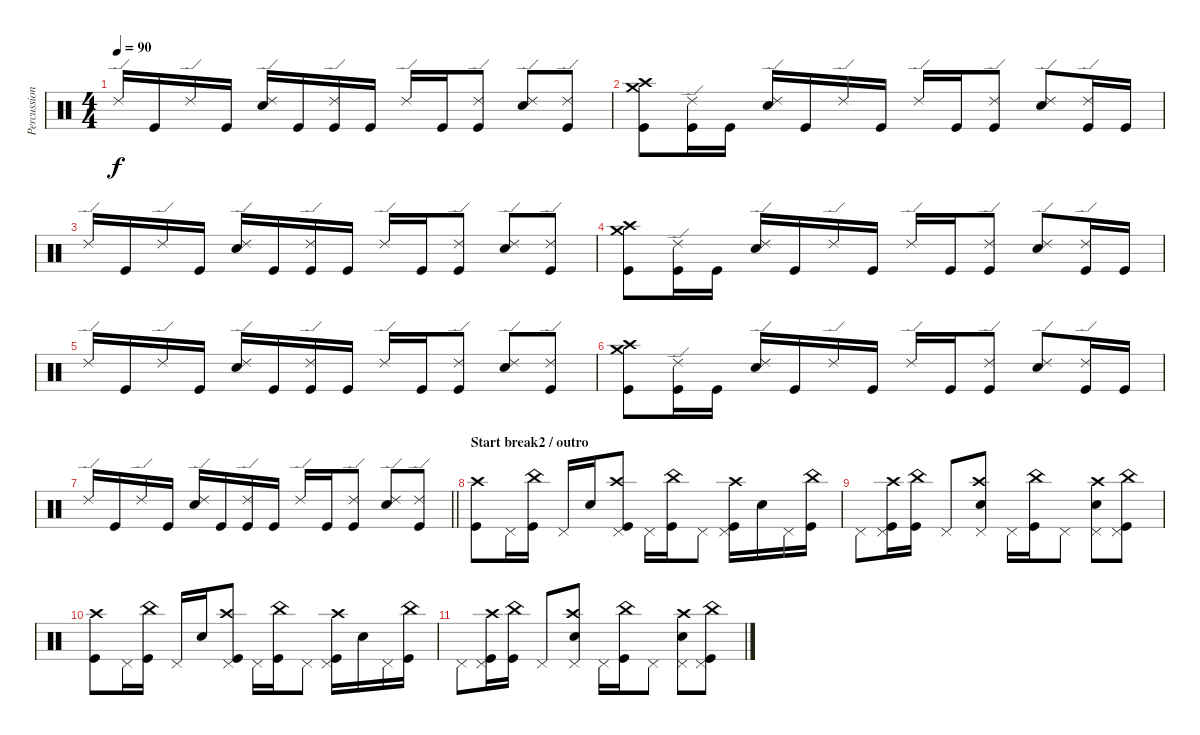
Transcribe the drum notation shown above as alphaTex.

\track ("Percussion" "Percussion") {instrument percussion}
\staff {score}
\articulation defaults
\ts (4 4)
\tempo 90
\clef neutral
\ks c "Ride (edge) 2".16{dy f} "Kick (hit)".16 "Ride (edge) 2".16 "Kick (hit)".16
("Snare (hit) 2" "Ride (edge) 2").16 "Kick (hit)".16 ("Kick (hit)" "Ride (edge) 2").16 "Kick (hit)".16 "Ride (edge) 2".16 "Kick (hit)".16 ("Kick (hit)" "Ride (edge) 2").8 ("Snare (hit) 2" "Ride (edge) 2").8 ("Kick (hit)" "Ride (edge) 2").8 |
("Kick (hit)" "Crash high (hit)" "Crash medium (hit)").8 ("Kick (hit)" "Ride (edge) 2").16 "Kick (hit)".16 ("Snare (hit) 2" "Ride (edge) 2").16 "Kick (hit)".16 "Ride (edge) 2".16 "Kick (hit)".16 "Ride (edge) 2".16 "Kick (hit)".16 ("Kick (hit)" "Ride (edge) 2").8 ("Snare (hit) 2" "Ride (edge) 2").8 ("Kick (hit)" "Ride (edge) 2").16 "Kick (hit)".16 |
"Ride (edge) 2".16 "Kick (hit)".16 "Ride (edge) 2".16 "Kick (hit)".16 ("Snare (hit) 2" "Ride (edge) 2").16 "Kick (hit)".16 ("Kick (hit)" "Ride (edge) 2").16 "Kick (hit)".16 "Ride (edge) 2".16 "Kick (hit)".16 ("Kick (hit)" "Ride (edge) 2").8 ("Snare (hit) 2" "Ride (edge) 2").8 ("Kick (hit)" "Ride (edge) 2").8 |
("Kick (hit)" "Crash high (hit)" "Crash medium (hit)").8 ("Kick (hit)" "Ride (edge) 2").16 "Kick (hit)".16 ("Snare (hit) 2" "Ride (edge) 2").16 "Kick (hit)".16 "Ride (edge) 2".16 "Kick (hit)".16 "Ride (edge) 2".16 "Kick (hit)".16 ("Kick (hit)" "Ride (edge) 2").8 ("Snare (hit) 2" "Ride (edge) 2").8 ("Kick (hit)" "Ride (edge) 2").16 "Kick (hit)".16 |
"Ride (edge) 2".16 "Kick (hit)".16 "Ride (edge) 2".16 "Kick (hit)".16 ("Snare (hit) 2" "Ride (edge) 2").16 "Kick (hit)".16 ("Kick (hit)" "Ride (edge) 2").16 "Kick (hit)".16 "Ride (edge) 2".16 "Kick (hit)".16 ("Kick (hit)" "Ride (edge) 2").8 ("Snare (hit) 2" "Ride (edge) 2").8 ("Kick (hit)" "Ride (edge) 2").8 |
("Kick (hit)" "Crash high (hit)" "Crash medium (hit)").8 ("Kick (hit)" "Ride (edge) 2").16 "Kick (hit)".16 ("Snare (hit) 2" "Ride (edge) 2").16 "Kick (hit)".16 "Ride (edge) 2".16 "Kick (hit)".16 "Ride (edge) 2".16 "Kick (hit)".16 ("Kick (hit)" "Ride (edge) 2").8 ("Snare (hit) 2" "Ride (edge) 2").8 ("Kick (hit)" "Ride (edge) 2").16 "Kick (hit)".16 |
\barLineRight lightlight "Ride (edge) 2".16 "Kick (hit)".16 "Ride (edge) 2".16 "Kick (hit)".16
("Snare (hit) 2" "Ride (edge) 2").16 "Kick (hit)".16 ("Kick (hit)" "Ride (edge) 2").16 "Kick (hit)".16 "Ride (edge) 2".16 "Kick (hit)".16 ("Kick (hit)" "Ride (edge) 2").8 ("Snare (hit) 2" "Ride (edge) 2").8 ("Kick (hit)" "Ride (edge) 2").8 |
\section ("" "Start break2 / outro")
("Kick (hit)" "Crash high (hit)").8 "Pedal Hi-Hat (hit)".16 ("Kick (hit)" "China (hit)").16 "Pedal Hi-Hat (hit)".16 "Snare (hit) 2".16 ("Kick (hit)" "Crash high (hit)" "Pedal Hi-Hat (hit)").8 "Pedal Hi-Hat (hit)".16 ("Kick (hit)" "China (hit)").16 "Pedal Hi-Hat (hit)".8 ("Kick (hit)" "Crash high (hit)" "Pedal Hi-Hat (hit)").16 "Snare (hit) 2".16 "Pedal Hi-Hat (hit)".16 ("Kick (hit)" "China (hit)").16 |
"Pedal Hi-Hat (hit)".8 ("Kick (hit)" "Crash high (hit)" "Pedal Hi-Hat (hit)").16 ("Kick (hit)" "China (hit)").16 "Pedal Hi-Hat (hit)".8 ("Snare (hit) 2" "Crash high (hit)" "Pedal Hi-Hat (hit)").8 "Pedal Hi-Hat (hit)".16 ("Kick (hit)" "China (hit)").16 "Pedal Hi-Hat (hit)".8 ("Snare (hit) 2" "Crash high (hit)" "Pedal Hi-Hat (hit)").8 ("Kick (hit)" "China (hit)" "Pedal Hi-Hat (hit)").8 |
("Kick (hit)" "Crash high (hit)").8 "Pedal Hi-Hat (hit)".16 ("Kick (hit)" "China (hit)").16 "Pedal Hi-Hat (hit)".16 "Snare (hit) 2".16 ("Kick (hit)" "Crash high (hit)" "Pedal Hi-Hat (hit)").8 "Pedal Hi-Hat (hit)".16 ("Kick (hit)" "China (hit)").16 "Pedal Hi-Hat (hit)".8 ("Kick (hit)" "Crash high (hit)" "Pedal Hi-Hat (hit)").16 "Snare (hit) 2".16 "Pedal Hi-Hat (hit)".16 ("Kick (hit)" "China (hit)").16 |
"Pedal Hi-Hat (hit)".8 ("Kick (hit)" "Crash high (hit)" "Pedal Hi-Hat (hit)").16 ("Kick (hit)" "China (hit)").16 "Pedal Hi-Hat (hit)".8 ("Snare (hit) 2" "Crash high (hit)" "Pedal Hi-Hat (hit)").8 "Pedal Hi-Hat (hit)".16 ("Kick (hit)" "China (hit)").16 "Pedal Hi-Hat (hit)".8 ("Snare (hit) 2" "Crash high (hit)" "Pedal Hi-Hat (hit)").8 ("Kick (hit)" "China (hit)" "Pedal Hi-Hat (hit)").8
